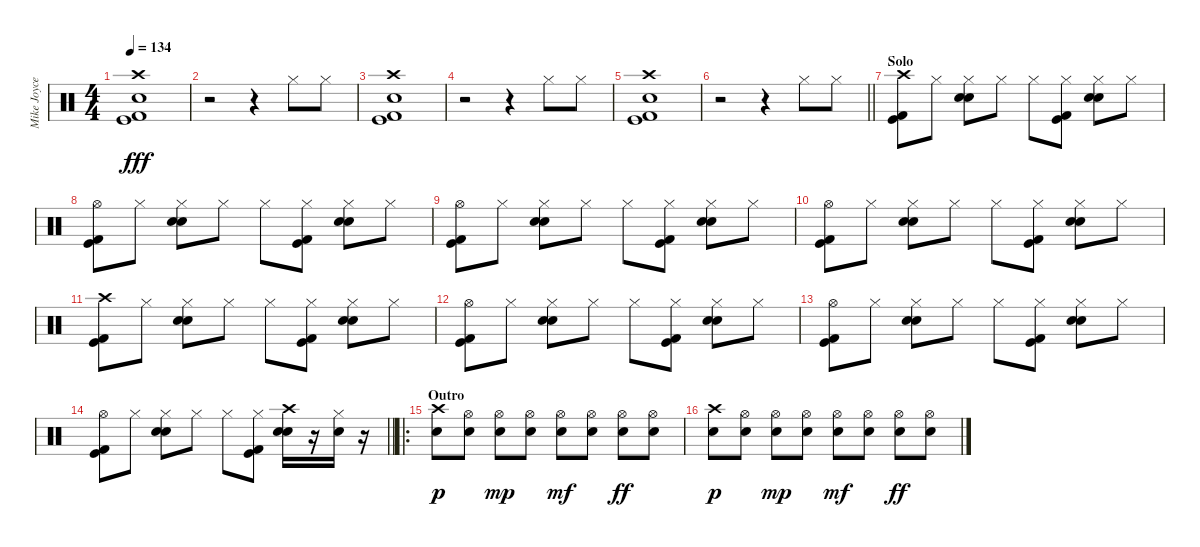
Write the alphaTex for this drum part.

\track ("Mike Joyce" "Mike Joyce") {instrument percussion}
\staff {score}
\articulation defaults
\ts (4 4)
\tempo 134
\clef neutral
\ks c
("Crash high (hit)" "Snare (hit) 2" "Kick (hit)" "Kick (hit) 2").1{dy fff} |
r.2 r.4 "Hi-Hat (closed)".8 "Hi-Hat (closed)".8 |
("Crash high (hit)" "Snare (hit) 2" "Kick (hit)" "Kick (hit) 2").1 |
r.2 r.4 "Hi-Hat (closed)".8 "Hi-Hat (closed)".8 |
("Crash high (hit)" "Snare (hit) 2" "Kick (hit)" "Kick (hit) 2").1 |
\barLineRight lightlight
r.2 r.4 "Hi-Hat (closed)".8 "Hi-Hat (closed)".8 |
\section ("" "Solo")
("Crash high (hit)" "Kick (hit) 2" "Kick (hit)").8 "Hi-Hat (closed)".8 ("Hi-Hat (closed)" "Electric Snare (hit)" "Snare (hit) 2").8 "Hi-Hat (closed)".8 "Hi-Hat (closed)".8 ("Hi-Hat (closed)" "Kick (hit) 2" "Kick (hit)").8 ("Hi-Hat (closed)" "Electric Snare (hit)" "Snare (hit) 2").8 "Hi-Hat (closed)".8 |
("Hi-Hat (open)" "Kick (hit) 2" "Kick (hit)").8 "Hi-Hat (closed)".8 ("Hi-Hat (closed)" "Electric Snare (hit)" "Snare (hit) 2").8 "Hi-Hat (closed)".8 "Hi-Hat (closed)".8 ("Hi-Hat (closed)" "Kick (hit) 2" "Kick (hit)").8 ("Hi-Hat (closed)" "Electric Snare (hit)" "Snare (hit) 2").8 "Hi-Hat (closed)".8 |
("Hi-Hat (open)" "Kick (hit) 2" "Kick (hit)").8 "Hi-Hat (closed)".8 ("Hi-Hat (closed)" "Electric Snare (hit)" "Snare (hit) 2").8 "Hi-Hat (closed)".8 "Hi-Hat (closed)".8 ("Hi-Hat (closed)" "Kick (hit) 2" "Kick (hit)").8 ("Hi-Hat (closed)" "Electric Snare (hit)" "Snare (hit) 2").8 "Hi-Hat (closed)".8 |
("Hi-Hat (open)" "Kick (hit) 2" "Kick (hit)").8 "Hi-Hat (closed)".8 ("Hi-Hat (closed)" "Electric Snare (hit)" "Snare (hit) 2").8 "Hi-Hat (closed)".8 "Hi-Hat (closed)".8 ("Hi-Hat (closed)" "Kick (hit) 2" "Kick (hit)").8 ("Hi-Hat (closed)" "Electric Snare (hit)" "Snare (hit) 2").8 "Hi-Hat (closed)".8 |
("Crash high (hit)" "Kick (hit) 2" "Kick (hit)").8 "Hi-Hat (closed)".8 ("Hi-Hat (closed)" "Electric Snare (hit)" "Snare (hit) 2").8 "Hi-Hat (closed)".8 "Hi-Hat (closed)".8 ("Hi-Hat (closed)" "Kick (hit) 2" "Kick (hit)").8 ("Hi-Hat (closed)" "Electric Snare (hit)" "Snare (hit) 2").8 "Hi-Hat (closed)".8 |
("Hi-Hat (open)" "Kick (hit) 2" "Kick (hit)").8 "Hi-Hat (closed)".8 ("Hi-Hat (closed)" "Electric Snare (hit)" "Snare (hit) 2").8 "Hi-Hat (closed)".8 "Hi-Hat (closed)".8 ("Hi-Hat (closed)" "Kick (hit) 2" "Kick (hit)").8 ("Hi-Hat (closed)" "Electric Snare (hit)" "Snare (hit) 2").8 "Hi-Hat (closed)".8 |
("Hi-Hat (open)" "Kick (hit) 2" "Kick (hit)").8 "Hi-Hat (closed)".8 ("Hi-Hat (closed)" "Electric Snare (hit)" "Snare (hit) 2").8 "Hi-Hat (closed)".8 "Hi-Hat (closed)".8 ("Hi-Hat (closed)" "Kick (hit) 2" "Kick (hit)").8 ("Hi-Hat (closed)" "Electric Snare (hit)" "Snare (hit) 2").8 "Hi-Hat (closed)".8 |
\barLineRight lightlight
("Hi-Hat (open)" "Kick (hit) 2" "Kick (hit)").8 "Hi-Hat (closed)".8 ("Hi-Hat (closed)" "Electric Snare (hit)" "Snare (hit) 2").8 "Hi-Hat (closed)".8 "Hi-Hat (closed)".8 ("Hi-Hat (closed)" "Kick (hit) 2" "Kick (hit)").8 ("Crash high (hit)" "Electric Snare (hit)" "Snare (hit) 2").16 r.16 ("Hi-Hat (closed)" "Snare (hit) 2").16 r.16 |
\ro
\section ("" "Outro")
("Crash high (hit)" "Snare (hit) 2").8{bd 480 dy p} ("Hi-Hat (open)" "Snare (hit) 2").8 ("Hi-Hat (open)" "Snare (hit) 2").8{dy mp} ("Hi-Hat (open)" "Snare (hit) 2").8 ("Hi-Hat (open)" "Snare (hit) 2").8{dy mf} ("Hi-Hat (open)" "Snare (hit) 2").8 ("Hi-Hat (open)" "Snare (hit) 2").8{dy ff} ("Hi-Hat (open)" "Snare (hit) 2").8 |
("Crash high (hit)" "Snare (hit) 2").8{bd 480 dy p} ("Hi-Hat (open)" "Snare (hit) 2").8 ("Hi-Hat (open)" "Snare (hit) 2").8{dy mp} ("Hi-Hat (open)" "Snare (hit) 2").8 ("Hi-Hat (open)" "Snare (hit) 2").8{dy mf} ("Hi-Hat (open)" "Snare (hit) 2").8 ("Hi-Hat (open)" "Snare (hit) 2").8{dy ff} ("Hi-Hat (open)" "Snare (hit) 2").8
